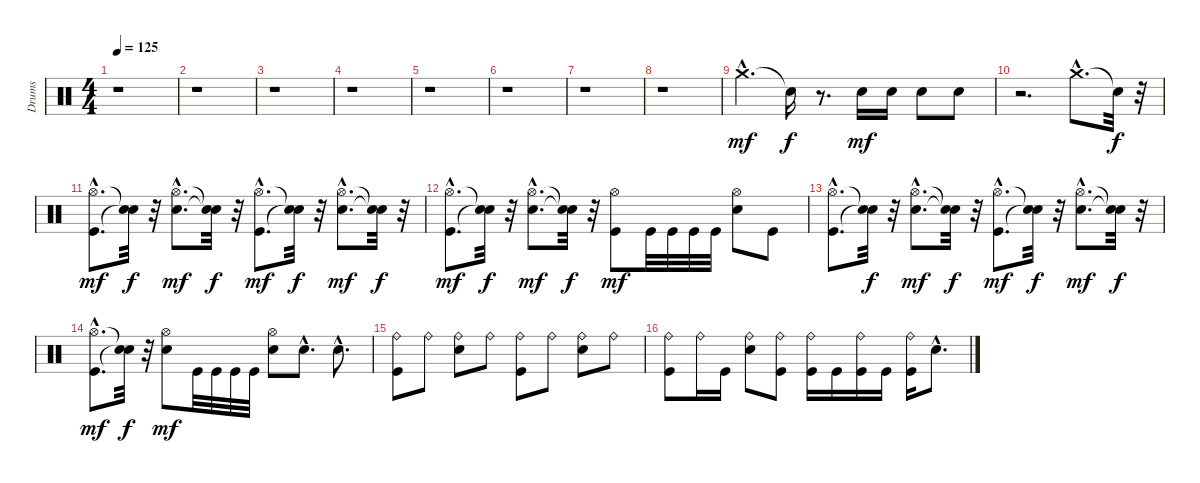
\track ("Drums" "Drums") {instrument percussion}
\staff {score}
\articulation defaults
\ts (4 4)
\tempo 125
\clef neutral
\ks c
r.1{dy f} |
r.1 |
r.1 |
r.1 |
r.1 |
r.1 |
r.1 |
r.1 |
"Crash medium (hit)"{hac}.4{d dy mf} "Snare (hit)"{t}.16{dy f} r.8{d} "Electric Snare (hit)".16{dy mf} "Electric Snare (hit)".16 "Electric Snare (hit)".8 "Electric Snare (hit)".8 |
r.2{d} "Crash medium (hit)"{hac}.8{d} "Snare (hit)"{t}.32{dy f} r.32 |
("Kick (hit)"{hac} "Hi-Hat (open)"{hac}).8{d dy mf} ("Snare (hit)"{t} "Snare (hit)"{t}).32{dy f} r.32 ("Electric Snare (hit)"{hac} "Hi-Hat (open)"{hac}).8{d dy mf} ("Snare (hit)"{t} "Snare (hit)"{t}).32{dy f} r.32 ("Kick (hit)"{hac} "Hi-Hat (open)"{hac}).8{d dy mf} ("Snare (hit)"{t} "Snare (hit)"{t}).32{dy f} r.32 ("Electric Snare (hit)"{hac} "Hi-Hat (open)"{hac}).8{d dy mf} ("Snare (hit)"{t} "Snare (hit)"{t}).32{dy f} r.32 |
("Kick (hit)"{hac} "Hi-Hat (open)"{hac}).8{d dy mf} ("Snare (hit)"{t} "Snare (hit)"{t}).32{dy f} r.32 ("Electric Snare (hit)"{hac} "Hi-Hat (open)"{hac}).8{d dy mf} ("Snare (hit)"{t} "Snare (hit)"{t}).32{dy f} r.32 ("Kick (hit)" "Hi-Hat (open)").8{dy mf} "Kick (hit)".32 "Kick (hit)".32 "Kick (hit)".32 "Kick (hit)".32 ("Electric Snare (hit)" "Hi-Hat (open)").8 "Kick (hit)".8 |
("Kick (hit)"{hac} "Hi-Hat (open)"{hac}).8{d} ("Snare (hit)"{t} "Snare (hit)"{t}).32{dy f} r.32 ("Electric Snare (hit)"{hac} "Hi-Hat (open)"{hac}).8{d dy mf} ("Snare (hit)"{t} "Snare (hit)"{t}).32{dy f} r.32 ("Kick (hit)"{hac} "Hi-Hat (open)"{hac}).8{d dy mf} ("Snare (hit)"{t} "Snare (hit)"{t}).32{dy f} r.32 ("Electric Snare (hit)"{hac} "Hi-Hat (open)"{hac}).8{d dy mf} ("Snare (hit)"{t} "Snare (hit)"{t}).32{dy f} r.32 |
("Kick (hit)"{hac} "Hi-Hat (open)"{hac}).8{d dy mf} ("Snare (hit)"{t} "Snare (hit)"{t}).32{dy f} r.32 ("Electric Snare (hit)" "Hi-Hat (open)").8{dy mf} "Kick (hit)".32 "Kick (hit)".32 "Kick (hit)".32 "Kick (hit)".32 ("Electric Snare (hit)" "Hi-Hat (open)").8 "Electric Snare (hit)"{hac}.8{d} "Electric Snare (hit)"{hac}.8{d} |
("Kick (hit)" "Ride (bell)").8 "Ride (bell)".8 ("Electric Snare (hit)" "Ride (bell)").8 "Ride (bell)".8 ("Kick (hit)" "Ride (bell)").8 "Ride (bell)".8 ("Electric Snare (hit)" "Ride (bell)").8 "Ride (bell)".8 |
("Kick (hit)" "Ride (bell)").8 "Ride (bell)".16 "Kick (hit)".16 ("Electric Snare (hit)" "Ride (bell)").8 ("Kick (hit)" "Ride (bell)").8 ("Kick (hit)" "Ride (bell)").16 "Kick (hit)".16 ("Kick (hit)" "Ride (bell)").16 "Kick (hit)".16 ("Kick (hit)" "Ride (bell)").16 "Electric Snare (hit)"{hac}.8{d}
